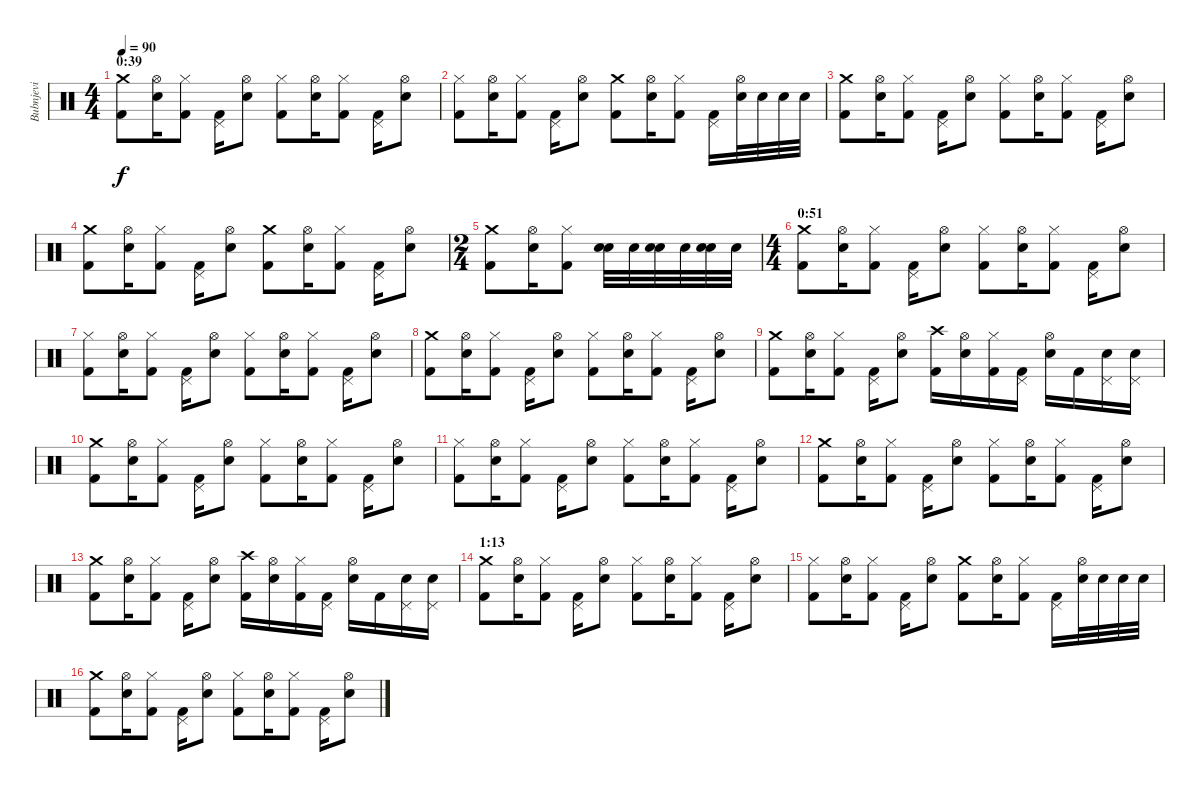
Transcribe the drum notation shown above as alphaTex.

\track ("Bubnjevi" "Bubnjevi") {instrument percussion}
\staff {score}
\articulation defaults
\ts (4 4)
\section ("" "0:39")
\tempo 90
\clef neutral
\ks c
("Crash medium (hit)" "Kick (hit) 2").8{dy f} ("Hi-Hat (open)" "Snare (hit) 2").16 ("Hi-Hat (closed)" "Kick (hit) 2").8 ("Pedal Hi-Hat (hit)" "Kick (hit) 2").16 ("Hi-Hat (open)" "Snare (hit) 2").8 ("Hi-Hat (closed)" "Kick (hit) 2").8 ("Hi-Hat (open)" "Snare (hit) 2").16 ("Hi-Hat (closed)" "Kick (hit) 2").8 ("Pedal Hi-Hat (hit)" "Kick (hit) 2").16 ("Hi-Hat (open)" "Snare (hit) 2").8 |
("Hi-Hat (closed)" "Kick (hit) 2").8 ("Hi-Hat (open)" "Snare (hit) 2").16 ("Hi-Hat (closed)" "Kick (hit) 2").8 ("Pedal Hi-Hat (hit)" "Kick (hit) 2").16 ("Hi-Hat (open)" "Snare (hit) 2").8 ("Crash medium (hit)" "Kick (hit) 2").8 ("Hi-Hat (open)" "Snare (hit) 2").16 ("Hi-Hat (closed)" "Kick (hit) 2").8 ("Pedal Hi-Hat (hit)" "Kick (hit) 2").16 ("Hi-Hat (open)" "Snare (hit) 2").32 "Snare (hit) 2".32 "Snare (hit) 2".32 "Snare (hit) 2".32 |
("Crash medium (hit)" "Kick (hit) 2").8 ("Hi-Hat (open)" "Snare (hit) 2").16 ("Hi-Hat (closed)" "Kick (hit) 2").8 ("Pedal Hi-Hat (hit)" "Kick (hit) 2").16 ("Hi-Hat (open)" "Snare (hit) 2").8 ("Hi-Hat (closed)" "Kick (hit) 2").8 ("Hi-Hat (open)" "Snare (hit) 2").16 ("Hi-Hat (closed)" "Kick (hit) 2").8 ("Pedal Hi-Hat (hit)" "Kick (hit) 2").16 ("Hi-Hat (open)" "Snare (hit) 2").8 |
("Crash medium (hit)" "Kick (hit) 2").8 ("Hi-Hat (open)" "Snare (hit) 2").16 ("Hi-Hat (closed)" "Kick (hit) 2").8 ("Pedal Hi-Hat (hit)" "Kick (hit) 2").16 ("Hi-Hat (open)" "Snare (hit) 2").8 ("Crash medium (hit)" "Kick (hit) 2").8 ("Hi-Hat (open)" "Snare (hit) 2").16 ("Hi-Hat (closed)" "Kick (hit) 2").8 ("Pedal Hi-Hat (hit)" "Kick (hit) 2").16 ("Hi-Hat (open)" "Snare (hit) 2").8 |
\ts (2 4)
("Crash medium (hit)" "Kick (hit) 2").8 ("Hi-Hat (open)" "Snare (hit) 2").16 ("Hi-Hat (closed)" "Kick (hit) 2").8 ("Snare (hit) 2" "Snare (hit) 2").32 "Snare (hit) 2".32 ("Snare (hit) 2" "Snare (hit) 2").32 "Snare (hit) 2".32 ("Snare (hit) 2" "Snare (hit) 2").32 "Snare (hit) 2".32 |
\ts (4 4)
\section ("" "0:51")
("Crash medium (hit)" "Kick (hit) 2").8 ("Hi-Hat (open)" "Snare (hit) 2").16 ("Hi-Hat (closed)" "Kick (hit) 2").8 ("Pedal Hi-Hat (hit)" "Kick (hit) 2").16 ("Hi-Hat (open)" "Snare (hit) 2").8 ("Hi-Hat (closed)" "Kick (hit) 2").8 ("Hi-Hat (open)" "Snare (hit) 2").16 ("Hi-Hat (closed)" "Kick (hit) 2").8 ("Pedal Hi-Hat (hit)" "Kick (hit) 2").16 ("Hi-Hat (open)" "Snare (hit) 2").8 |
("Hi-Hat (closed)" "Kick (hit) 2").8 ("Hi-Hat (open)" "Snare (hit) 2").16 ("Hi-Hat (closed)" "Kick (hit) 2").8 ("Pedal Hi-Hat (hit)" "Kick (hit) 2").16 ("Hi-Hat (open)" "Snare (hit) 2").8 ("Hi-Hat (closed)" "Kick (hit) 2").8 ("Hi-Hat (open)" "Snare (hit) 2").16 ("Hi-Hat (closed)" "Kick (hit) 2").8 ("Pedal Hi-Hat (hit)" "Kick (hit) 2").16 ("Hi-Hat (open)" "Snare (hit) 2").8 |
("Crash medium (hit)" "Kick (hit) 2").8 ("Hi-Hat (open)" "Snare (hit) 2").16 ("Hi-Hat (closed)" "Kick (hit) 2").8 ("Pedal Hi-Hat (hit)" "Kick (hit) 2").16 ("Hi-Hat (open)" "Snare (hit) 2").8 ("Hi-Hat (closed)" "Kick (hit) 2").8 ("Hi-Hat (open)" "Snare (hit) 2").16 ("Hi-Hat (closed)" "Kick (hit) 2").8 ("Pedal Hi-Hat (hit)" "Kick (hit) 2").16 ("Hi-Hat (open)" "Snare (hit) 2").8 |
("Crash medium (hit)" "Kick (hit) 2").8 ("Hi-Hat (open)" "Snare (hit) 2").16 ("Hi-Hat (closed)" "Kick (hit) 2").8 ("Pedal Hi-Hat (hit)" "Kick (hit) 2").16 ("Hi-Hat (open)" "Snare (hit) 2").8 ("Crash high (hit)" "Kick (hit) 2").16 ("Hi-Hat (open)" "Snare (hit) 2").16 ("Hi-Hat (closed)" "Kick (hit) 2").16 ("Pedal Hi-Hat (hit)" "Kick (hit) 2").16 ("Hi-Hat (open)" "Snare (hit) 2").16 "Kick (hit) 2".16 ("Pedal Hi-Hat (hit)" "Snare (hit) 2").16 ("Pedal Hi-Hat (hit)" "Snare (hit) 2").16 |
("Crash medium (hit)" "Kick (hit) 2").8 ("Hi-Hat (open)" "Snare (hit) 2").16 ("Hi-Hat (closed)" "Kick (hit) 2").8 ("Pedal Hi-Hat (hit)" "Kick (hit) 2").16 ("Hi-Hat (open)" "Snare (hit) 2").8 ("Hi-Hat (closed)" "Kick (hit) 2").8 ("Hi-Hat (open)" "Snare (hit) 2").16 ("Hi-Hat (closed)" "Kick (hit) 2").8 ("Pedal Hi-Hat (hit)" "Kick (hit) 2").16 ("Hi-Hat (open)" "Snare (hit) 2").8 |
("Hi-Hat (closed)" "Kick (hit) 2").8 ("Hi-Hat (open)" "Snare (hit) 2").16 ("Hi-Hat (closed)" "Kick (hit) 2").8 ("Pedal Hi-Hat (hit)" "Kick (hit) 2").16 ("Hi-Hat (open)" "Snare (hit) 2").8 ("Hi-Hat (closed)" "Kick (hit) 2").8 ("Hi-Hat (open)" "Snare (hit) 2").16 ("Hi-Hat (closed)" "Kick (hit) 2").8 ("Pedal Hi-Hat (hit)" "Kick (hit) 2").16 ("Hi-Hat (open)" "Snare (hit) 2").8 |
("Crash medium (hit)" "Kick (hit) 2").8 ("Hi-Hat (open)" "Snare (hit) 2").16 ("Hi-Hat (closed)" "Kick (hit) 2").8 ("Pedal Hi-Hat (hit)" "Kick (hit) 2").16 ("Hi-Hat (open)" "Snare (hit) 2").8 ("Hi-Hat (closed)" "Kick (hit) 2").8 ("Hi-Hat (open)" "Snare (hit) 2").16 ("Hi-Hat (closed)" "Kick (hit) 2").8 ("Pedal Hi-Hat (hit)" "Kick (hit) 2").16 ("Hi-Hat (open)" "Snare (hit) 2").8 |
("Crash medium (hit)" "Kick (hit) 2").8 ("Hi-Hat (open)" "Snare (hit) 2").16 ("Hi-Hat (closed)" "Kick (hit) 2").8 ("Pedal Hi-Hat (hit)" "Kick (hit) 2").16 ("Hi-Hat (open)" "Snare (hit) 2").8 ("Crash high (hit)" "Kick (hit) 2").16 ("Hi-Hat (open)" "Snare (hit) 2").16 ("Hi-Hat (closed)" "Kick (hit) 2").16 ("Pedal Hi-Hat (hit)" "Kick (hit) 2").16 ("Hi-Hat (open)" "Snare (hit) 2").16 "Kick (hit) 2".16 ("Pedal Hi-Hat (hit)" "Snare (hit) 2").16 ("Pedal Hi-Hat (hit)" "Snare (hit) 2").16 |
\section ("" "1:13")
("Crash medium (hit)" "Kick (hit) 2").8 ("Hi-Hat (open)" "Snare (hit) 2").16 ("Hi-Hat (closed)" "Kick (hit) 2").8 ("Pedal Hi-Hat (hit)" "Kick (hit) 2").16 ("Hi-Hat (open)" "Snare (hit) 2").8 ("Hi-Hat (closed)" "Kick (hit) 2").8 ("Hi-Hat (open)" "Snare (hit) 2").16 ("Hi-Hat (closed)" "Kick (hit) 2").8 ("Pedal Hi-Hat (hit)" "Kick (hit) 2").16 ("Hi-Hat (open)" "Snare (hit) 2").8 |
("Hi-Hat (closed)" "Kick (hit) 2").8 ("Hi-Hat (open)" "Snare (hit) 2").16 ("Hi-Hat (closed)" "Kick (hit) 2").8 ("Pedal Hi-Hat (hit)" "Kick (hit) 2").16 ("Hi-Hat (open)" "Snare (hit) 2").8 ("Crash medium (hit)" "Kick (hit) 2").8 ("Hi-Hat (open)" "Snare (hit) 2").16 ("Hi-Hat (closed)" "Kick (hit) 2").8 ("Pedal Hi-Hat (hit)" "Kick (hit) 2").16 ("Hi-Hat (open)" "Snare (hit) 2").32 "Snare (hit) 2".32 "Snare (hit) 2".32 "Snare (hit) 2".32 |
("Crash medium (hit)" "Kick (hit) 2").8 ("Hi-Hat (open)" "Snare (hit) 2").16 ("Hi-Hat (closed)" "Kick (hit) 2").8 ("Pedal Hi-Hat (hit)" "Kick (hit) 2").16 ("Hi-Hat (open)" "Snare (hit) 2").8 ("Hi-Hat (closed)" "Kick (hit) 2").8 ("Hi-Hat (open)" "Snare (hit) 2").16 ("Hi-Hat (closed)" "Kick (hit) 2").8 ("Pedal Hi-Hat (hit)" "Kick (hit) 2").16 ("Hi-Hat (open)" "Snare (hit) 2").8
